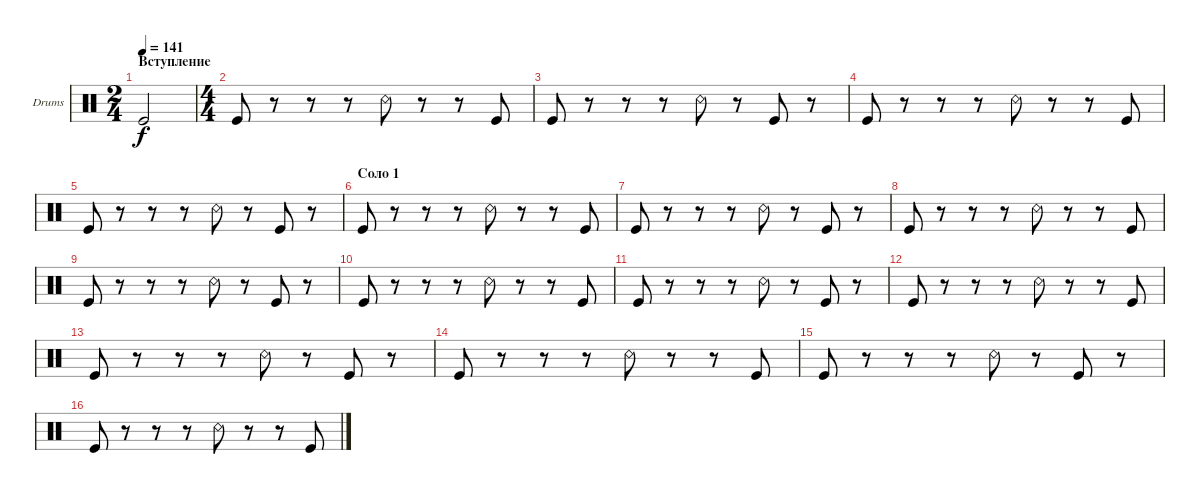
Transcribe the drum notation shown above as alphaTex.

\defaultSystemsLayout 4
\bracketExtendMode groupsimilarinstruments
\firstSystemTrackNameOrientation horizontal
\otherSystemsTrackNameOrientation horizontal
\track ("Drumkit" "Drums") {instrument percussion}
\staff {score}
\articulation defaults
\ts (2 4)
\section ("" "Вступление")
\tempo 141
\clef neutral
\ks c "Kick (hit)".2{dy f}
|
\ts (4 4)
"Kick (hit)".8 r.8 r.8 r.8 "Snare (rim shot)".8 r.8 r.8 "Kick (hit)".8 |
"Kick (hit)".8 r.8 r.8 r.8 "Snare (rim shot)".8 r.8 "Kick (hit)".8 r.8 |
"Kick (hit)".8 r.8 r.8 r.8 "Snare (rim shot)".8 r.8 r.8 "Kick (hit)".8 |
"Kick (hit)".8 r.8 r.8 r.8 "Snare (rim shot)".8 r.8 "Kick (hit)".8 r.8 |
\section ("" "Соло 1")
"Kick (hit)".8 r.8 r.8 r.8 "Snare (rim shot)".8 r.8 r.8 "Kick (hit)".8 |
"Kick (hit)".8 r.8 r.8 r.8 "Snare (rim shot)".8 r.8 "Kick (hit)".8 r.8 |
"Kick (hit)".8 r.8 r.8 r.8 "Snare (rim shot)".8 r.8 r.8 "Kick (hit)".8 |
"Kick (hit)".8 r.8 r.8 r.8 "Snare (rim shot)".8 r.8 "Kick (hit)".8 r.8 |
"Kick (hit)".8 r.8 r.8 r.8 "Snare (rim shot)".8 r.8 r.8 "Kick (hit)".8 |
"Kick (hit)".8 r.8 r.8 r.8 "Snare (rim shot)".8 r.8 "Kick (hit)".8 r.8 |
"Kick (hit)".8 r.8 r.8 r.8 "Snare (rim shot)".8 r.8 r.8 "Kick (hit)".8 |
"Kick (hit)".8 r.8 r.8 r.8 "Snare (rim shot)".8 r.8 "Kick (hit)".8 r.8 |
"Kick (hit)".8 r.8 r.8 r.8 "Snare (rim shot)".8 r.8 r.8 "Kick (hit)".8 |
"Kick (hit)".8 r.8 r.8 r.8 "Snare (rim shot)".8 r.8 "Kick (hit)".8 r.8 |
"Kick (hit)".8 r.8 r.8 r.8 "Snare (rim shot)".8 r.8 r.8 "Kick (hit)".8
